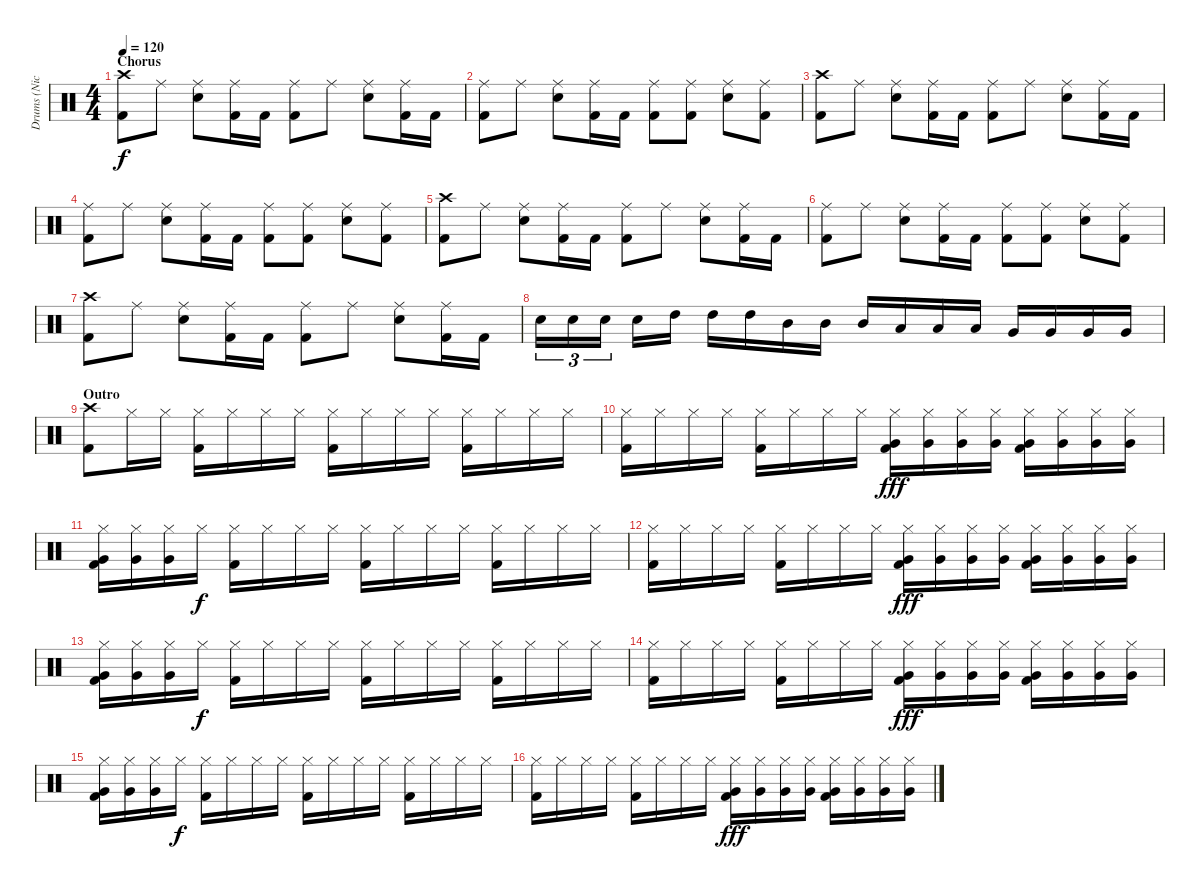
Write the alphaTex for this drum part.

\track ("Drums (Nick Menza)" "Drums (Nic") {instrument percussion}
\staff {score}
\articulation defaults
\ts (4 4)
\section ("" "Chorus")
\tempo 120
\clef neutral
\ks c
("Crash high (hit)" "Kick (hit) 2").8{dy f} "Ride (middle)".8 ("Ride (middle)" "Snare (hit) 2").8 ("Ride (middle)" "Kick (hit) 2").16 "Kick (hit) 2".16 ("Ride (middle)" "Kick (hit) 2").8 "Ride (middle)".8 ("Ride (middle)" "Snare (hit) 2").8 ("Ride (middle)" "Kick (hit) 2").16 "Kick (hit) 2".16 |
("Ride (middle)" "Kick (hit) 2").8 "Ride (middle)".8 ("Ride (middle)" "Snare (hit) 2").8 ("Ride (middle)" "Kick (hit) 2").16 "Kick (hit) 2".16 ("Ride (middle)" "Kick (hit) 2").8 ("Ride (middle)" "Kick (hit) 2").8 ("Ride (middle)" "Snare (hit) 2").8 ("Ride (middle)" "Kick (hit) 2").8 |
("Crash high (hit)" "Kick (hit) 2").8 "Ride (middle)".8 ("Ride (middle)" "Snare (hit) 2").8 ("Ride (middle)" "Kick (hit) 2").16 "Kick (hit) 2".16 ("Ride (middle)" "Kick (hit) 2").8 "Ride (middle)".8 ("Ride (middle)" "Snare (hit) 2").8 ("Ride (middle)" "Kick (hit) 2").16 "Kick (hit) 2".16 |
("Ride (middle)" "Kick (hit) 2").8 "Ride (middle)".8 ("Ride (middle)" "Snare (hit) 2").8 ("Ride (middle)" "Kick (hit) 2").16 "Kick (hit) 2".16 ("Ride (middle)" "Kick (hit) 2").8 ("Ride (middle)" "Kick (hit) 2").8 ("Ride (middle)" "Snare (hit) 2").8 ("Ride (middle)" "Kick (hit) 2").8 |
("Crash high (hit)" "Kick (hit) 2").8 "Ride (middle)".8 ("Ride (middle)" "Snare (hit) 2").8 ("Ride (middle)" "Kick (hit) 2").16 "Kick (hit) 2".16 ("Ride (middle)" "Kick (hit) 2").8 "Ride (middle)".8 ("Ride (middle)" "Snare (hit) 2").8 ("Ride (middle)" "Kick (hit) 2").16 "Kick (hit) 2".16 |
("Ride (middle)" "Kick (hit) 2").8 "Ride (middle)".8 ("Ride (middle)" "Snare (hit) 2").8 ("Ride (middle)" "Kick (hit) 2").16 "Kick (hit) 2".16 ("Ride (middle)" "Kick (hit) 2").8 ("Ride (middle)" "Kick (hit) 2").8 ("Ride (middle)" "Snare (hit) 2").8 ("Ride (middle)" "Kick (hit) 2").8 |
("Crash high (hit)" "Kick (hit) 2").8 "Ride (middle)".8 ("Ride (middle)" "Snare (hit) 2").8 ("Ride (middle)" "Kick (hit) 2").16 "Kick (hit) 2".16 ("Ride (middle)" "Kick (hit) 2").8 "Ride (middle)".8 ("Ride (middle)" "Snare (hit) 2").8 ("Ride (middle)" "Kick (hit) 2").16 "Kick (hit) 2".16 |
"Snare (hit) 2".16{tu (3 2)} "Snare (hit) 2".16{tu (3 2)} "Snare (hit) 2".16{tu (3 2)} "Snare (hit) 2".16 "High Tom (hit)".16 "High Tom (hit)".16 "High Tom (hit)".16 "Mid Tom (hit)".16 "Mid Tom (hit)".16 "Mid Tom (hit)".16 "Low Tom (hit)".16 "Low Tom (hit)".16 "Low Tom (hit)".16 "Very Low Tom (hit)".16 "Very Low Tom (hit)".16 "Very Low Tom (hit)".16 "Very Low Tom (hit)".16 |
\section ("" "Outro")
("Crash high (hit)" "Kick (hit) 2").8 "Hi-Hat (closed)".16 "Hi-Hat (closed)".16 ("Hi-Hat (closed)" "Kick (hit) 2").16 "Hi-Hat (closed)".16 "Hi-Hat (closed)".16 "Hi-Hat (closed)".16 ("Hi-Hat (closed)" "Kick (hit) 2").16 "Hi-Hat (closed)".16 "Hi-Hat (closed)".16 "Hi-Hat (closed)".16 ("Hi-Hat (closed)" "Kick (hit) 2").16 "Hi-Hat (closed)".16 "Hi-Hat (closed)".16 "Hi-Hat (closed)".16 |
("Hi-Hat (closed)" "Kick (hit) 2").16 "Hi-Hat (closed)".16 "Hi-Hat (closed)".16 "Hi-Hat (closed)".16 ("Hi-Hat (closed)" "Kick (hit) 2").16 "Hi-Hat (closed)".16 "Hi-Hat (closed)".16 "Hi-Hat (closed)".16 ("Hi-Hat (closed)" "Very Low Tom (hit)" "Kick (hit) 2").16{dy fff} ("Hi-Hat (closed)" "Very Low Tom (hit)").16 ("Hi-Hat (closed)" "Very Low Tom (hit)").16 ("Hi-Hat (closed)" "Very Low Tom (hit)").16 ("Hi-Hat (closed)" "Very Low Tom (hit)" "Kick (hit) 2").16 ("Hi-Hat (closed)" "Very Low Tom (hit)").16 ("Hi-Hat (closed)" "Very Low Tom (hit)").16 ("Hi-Hat (closed)" "Very Low Tom (hit)").16 |
("Hi-Hat (closed)" "Very Low Tom (hit)" "Kick (hit) 2").16 ("Hi-Hat (closed)" "Very Low Tom (hit)").16 ("Hi-Hat (closed)" "Very Low Tom (hit)").16 "Hi-Hat (closed)".16{dy f} ("Hi-Hat (closed)" "Kick (hit) 2").16 "Hi-Hat (closed)".16 "Hi-Hat (closed)".16 "Hi-Hat (closed)".16 ("Hi-Hat (closed)" "Kick (hit) 2").16 "Hi-Hat (closed)".16 "Hi-Hat (closed)".16 "Hi-Hat (closed)".16 ("Hi-Hat (closed)" "Kick (hit) 2").16 "Hi-Hat (closed)".16 "Hi-Hat (closed)".16 "Hi-Hat (closed)".16 |
("Hi-Hat (closed)" "Kick (hit) 2").16 "Hi-Hat (closed)".16 "Hi-Hat (closed)".16 "Hi-Hat (closed)".16 ("Hi-Hat (closed)" "Kick (hit) 2").16 "Hi-Hat (closed)".16 "Hi-Hat (closed)".16 "Hi-Hat (closed)".16 ("Hi-Hat (closed)" "Very Low Tom (hit)" "Kick (hit) 2").16{dy fff} ("Hi-Hat (closed)" "Very Low Tom (hit)").16 ("Hi-Hat (closed)" "Very Low Tom (hit)").16 ("Hi-Hat (closed)" "Very Low Tom (hit)").16 ("Hi-Hat (closed)" "Very Low Tom (hit)" "Kick (hit) 2").16 ("Hi-Hat (closed)" "Very Low Tom (hit)").16 ("Hi-Hat (closed)" "Very Low Tom (hit)").16 ("Hi-Hat (closed)" "Very Low Tom (hit)").16 |
("Hi-Hat (closed)" "Very Low Tom (hit)" "Kick (hit) 2").16 ("Hi-Hat (closed)" "Very Low Tom (hit)").16 ("Hi-Hat (closed)" "Very Low Tom (hit)").16 "Hi-Hat (closed)".16{dy f} ("Hi-Hat (closed)" "Kick (hit) 2").16 "Hi-Hat (closed)".16 "Hi-Hat (closed)".16 "Hi-Hat (closed)".16 ("Hi-Hat (closed)" "Kick (hit) 2").16 "Hi-Hat (closed)".16 "Hi-Hat (closed)".16 "Hi-Hat (closed)".16 ("Hi-Hat (closed)" "Kick (hit) 2").16 "Hi-Hat (closed)".16 "Hi-Hat (closed)".16 "Hi-Hat (closed)".16 |
("Hi-Hat (closed)" "Kick (hit) 2").16 "Hi-Hat (closed)".16 "Hi-Hat (closed)".16 "Hi-Hat (closed)".16 ("Hi-Hat (closed)" "Kick (hit) 2").16 "Hi-Hat (closed)".16 "Hi-Hat (closed)".16 "Hi-Hat (closed)".16 ("Hi-Hat (closed)" "Very Low Tom (hit)" "Kick (hit) 2").16{dy fff} ("Hi-Hat (closed)" "Very Low Tom (hit)").16 ("Hi-Hat (closed)" "Very Low Tom (hit)").16 ("Hi-Hat (closed)" "Very Low Tom (hit)").16 ("Hi-Hat (closed)" "Very Low Tom (hit)" "Kick (hit) 2").16 ("Hi-Hat (closed)" "Very Low Tom (hit)").16 ("Hi-Hat (closed)" "Very Low Tom (hit)").16 ("Hi-Hat (closed)" "Very Low Tom (hit)").16 |
("Hi-Hat (closed)" "Very Low Tom (hit)" "Kick (hit) 2").16 ("Hi-Hat (closed)" "Very Low Tom (hit)").16 ("Hi-Hat (closed)" "Very Low Tom (hit)").16 "Hi-Hat (closed)".16{dy f} ("Hi-Hat (closed)" "Kick (hit) 2").16 "Hi-Hat (closed)".16 "Hi-Hat (closed)".16 "Hi-Hat (closed)".16 ("Hi-Hat (closed)" "Kick (hit) 2").16 "Hi-Hat (closed)".16 "Hi-Hat (closed)".16 "Hi-Hat (closed)".16 ("Hi-Hat (closed)" "Kick (hit) 2").16 "Hi-Hat (closed)".16 "Hi-Hat (closed)".16 "Hi-Hat (closed)".16 |
("Hi-Hat (closed)" "Kick (hit) 2").16 "Hi-Hat (closed)".16 "Hi-Hat (closed)".16 "Hi-Hat (closed)".16 ("Hi-Hat (closed)" "Kick (hit) 2").16 "Hi-Hat (closed)".16 "Hi-Hat (closed)".16 "Hi-Hat (closed)".16 ("Hi-Hat (closed)" "Very Low Tom (hit)" "Kick (hit) 2").16{dy fff} ("Hi-Hat (closed)" "Very Low Tom (hit)").16 ("Hi-Hat (closed)" "Very Low Tom (hit)").16 ("Hi-Hat (closed)" "Very Low Tom (hit)").16 ("Hi-Hat (closed)" "Very Low Tom (hit)" "Kick (hit) 2").16 ("Hi-Hat (closed)" "Very Low Tom (hit)").16 ("Hi-Hat (closed)" "Very Low Tom (hit)").16 ("Hi-Hat (closed)" "Very Low Tom (hit)").16
